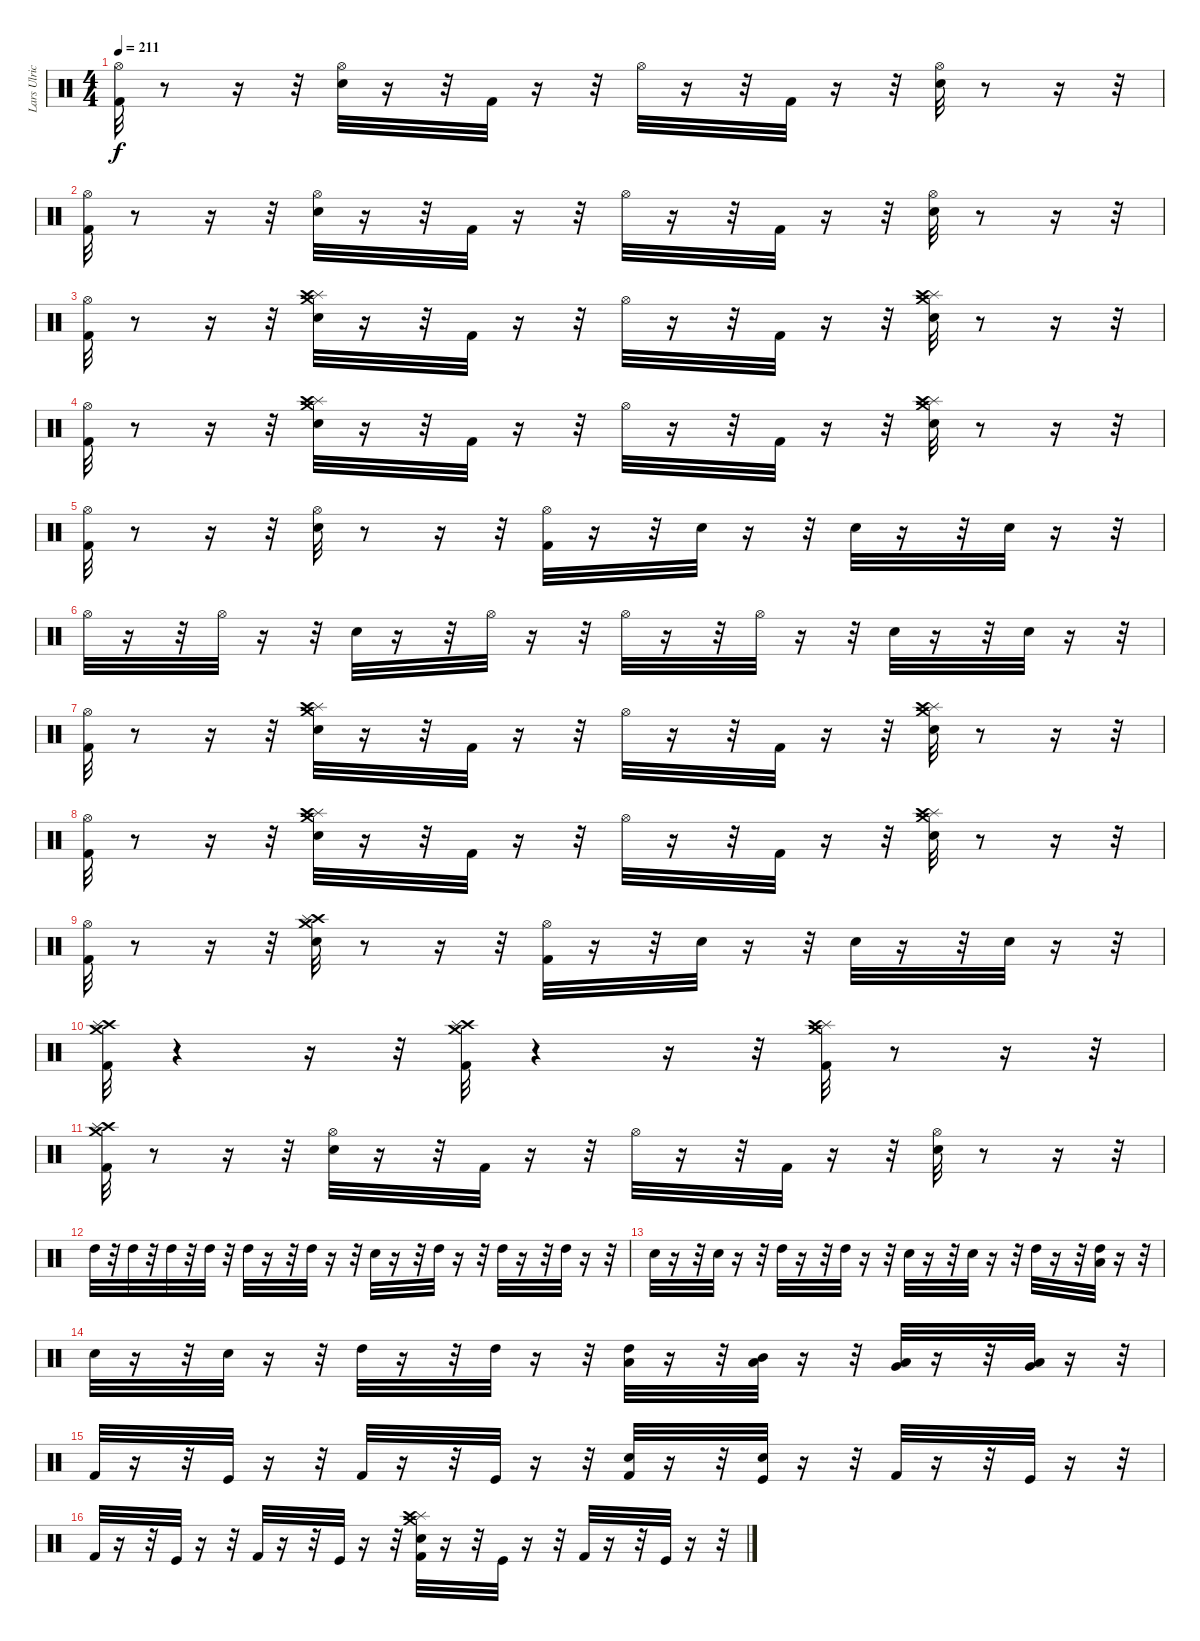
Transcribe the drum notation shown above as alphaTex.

\track ("Lars Ulrich (Drums)" "Lars Ulric") {instrument percussion}
\staff {score}
\articulation defaults
\ts (4 4)
\tempo 211
\clef neutral
\ks c
("Kick (hit) 2" "Hi-Hat (open)").32{dy f} r.8 r.16 r.32 ("Snare (hit) 2" "Hi-Hat (open)").32 r.16 r.32 "Kick (hit) 2".32 r.16 r.32 "Hi-Hat (open)".32 r.16 r.32 "Kick (hit) 2".32 r.16 r.32 ("Snare (hit) 2" "Hi-Hat (open)").32 r.8 r.16 r.32 |
("Kick (hit) 2" "Hi-Hat (open)").32 r.8 r.16 r.32 ("Snare (hit) 2" "Hi-Hat (open)").32 r.16 r.32 "Kick (hit) 2".32 r.16 r.32 "Hi-Hat (open)".32 r.16 r.32 "Kick (hit) 2".32 r.16 r.32 ("Snare (hit) 2" "Hi-Hat (open)").32 r.8 r.16 r.32 |
("Kick (hit) 2" "Hi-Hat (open)").32 r.8 r.16 r.32 ("Crash medium (hit)" "Splash (hit)" "Crash high (hit)" "Snare (hit) 2").32 r.16 r.32 "Kick (hit) 2".32 r.16 r.32 "Hi-Hat (open)".32 r.16 r.32 "Kick (hit) 2".32 r.16 r.32 ("Splash (hit)" "Crash medium (hit)" "Crash high (hit)" "Snare (hit) 2").32 r.8 r.16 r.32 |
("Kick (hit) 2" "Hi-Hat (open)").32 r.8 r.16 r.32 ("Crash medium (hit)" "Splash (hit)" "Crash high (hit)" "Snare (hit) 2").32 r.16 r.32 "Kick (hit) 2".32 r.16 r.32 "Hi-Hat (open)".32 r.16 r.32 "Kick (hit) 2".32 r.16 r.32 ("Splash (hit)" "Crash medium (hit)" "Crash high (hit)" "Snare (hit) 2").32 r.8 r.16 r.32 |
("Kick (hit) 2" "Hi-Hat (open)").32 r.8 r.16 r.32 ("Snare (hit) 2" "Hi-Hat (open)").32 r.8 r.16 r.32 ("Kick (hit) 2" "Hi-Hat (open)").32 r.16 r.32 "Snare (hit) 2".32 r.16 r.32 "Snare (hit) 2".32 r.16 r.32 "Snare (hit) 2".32 r.16 r.32 |
"Hi-Hat (open)".32 r.16 r.32 "Hi-Hat (open)".32 r.16 r.32 "Snare (hit) 2".32 r.16 r.32 "Hi-Hat (open)".32 r.16 r.32 "Hi-Hat (open)".32 r.16 r.32 "Hi-Hat (open)".32 r.16 r.32 "Snare (hit) 2".32 r.16 r.32 "Snare (hit) 2".32 r.16 r.32 |
("Kick (hit) 2" "Hi-Hat (open)").32 r.8 r.16 r.32 ("Crash medium (hit)" "Splash (hit)" "Crash high (hit)" "Snare (hit) 2").32 r.16 r.32 "Kick (hit) 2".32 r.16 r.32 "Hi-Hat (open)".32 r.16 r.32 "Kick (hit) 2".32 r.16 r.32 ("Splash (hit)" "Crash medium (hit)" "Crash high (hit)" "Snare (hit) 2").32 r.8 r.16 r.32 |
("Kick (hit) 2" "Hi-Hat (open)").32 r.8 r.16 r.32 ("Crash medium (hit)" "Splash (hit)" "Crash high (hit)" "Snare (hit) 2").32 r.16 r.32 "Kick (hit) 2".32 r.16 r.32 "Hi-Hat (open)".32 r.16 r.32 "Kick (hit) 2".32 r.16 r.32 ("Splash (hit)" "Crash medium (hit)" "Crash high (hit)" "Snare (hit) 2").32 r.8 r.16 r.32 |
("Kick (hit) 2" "Hi-Hat (open)").32 r.8 r.16 r.32 ("Crash high (hit)" "Crash medium (hit)" "Splash (hit)" "Snare (hit) 2").32 r.8 r.16 r.32 ("Kick (hit) 2" "Hi-Hat (open)").32 r.16 r.32 "Snare (hit) 2".32 r.16 r.32 "Snare (hit) 2".32 r.16 r.32 "Snare (hit) 2".32 r.16 r.32 |
("Kick (hit) 2" "Crash high (hit)" "Splash (hit)" "Crash medium (hit)").32 r.4 r.16 r.32 ("Kick (hit) 2" "Crash high (hit)" "Splash (hit)" "Crash medium (hit)").32 r.4 r.16 r.32 ("Kick (hit) 2" "Crash medium (hit)" "Splash (hit)" "Crash high (hit)").32 r.8 r.16 r.32 |
("Kick (hit) 2" "Crash high (hit)" "Crash medium (hit)" "Splash (hit)").32 r.8 r.16 r.32 ("Snare (hit) 2" "Hi-Hat (open)").32 r.16 r.32 "Kick (hit) 2".32 r.16 r.32 "Hi-Hat (open)".32 r.16 r.32 "Kick (hit) 2".32 r.16 r.32 ("Snare (hit) 2" "Hi-Hat (open)").32 r.8 r.16 r.32 |
"High Tom (hit)".32 r.32 "High Tom (hit)".32 r.32 "High Tom (hit)".32 r.32 "High Tom (hit)".32 r.32 "High Tom (hit)".32 r.16 r.32 "High Tom (hit)".32 r.16 r.32 "Snare (hit) 2".32 r.16 r.32 "High Tom (hit)".32 r.16 r.32 "High Tom (hit)".32 r.16 r.32 "High Tom (hit)".32 r.16 r.32 |
"Snare (hit) 2".32 r.16 r.32 "Snare (hit) 2".32 r.16 r.32 "High Tom (hit)".32 r.16 r.32 "High Tom (hit)".32 r.16 r.32 "Snare (hit) 2".32 r.16 r.32 "Snare (hit) 2".32 r.16 r.32 "High Tom (hit)".32 r.16 r.32 ("Low Tom (hit)" "High Tom (hit)").32 r.16 r.32 |
"Snare (hit) 2".32 r.16 r.32 "Snare (hit) 2".32 r.16 r.32 "High Tom (hit)".32 r.16 r.32 "High Tom (hit)".32 r.16 r.32 ("Low Tom (hit)" "High Tom (hit)").32 r.16 r.32 ("Low Tom (hit)" "Mid Tom (hit)").32 r.16 r.32 ("Low Tom (hit)" "Very Low Tom (hit)").32 r.16 r.32 ("Low Floor Tom (hit)" "Very Low Tom (hit)").32 r.16 r.32 |
"Kick (hit) 2".32 r.16 r.32 "Kick (hit)".32 r.16 r.32 "Kick (hit) 2".32 r.16 r.32 "Kick (hit)".32 r.16 r.32 ("Snare (hit) 2" "Kick (hit) 2").32 r.16 r.32 ("Snare (hit) 2" "Kick (hit)").32 r.16 r.32 "Kick (hit) 2".32 r.16 r.32 "Kick (hit)".32 r.16 r.32 |
"Kick (hit) 2".32 r.16 r.32 "Kick (hit)".32 r.16 r.32 "Kick (hit) 2".32 r.16 r.32 "Kick (hit)".32 r.16 r.32 ("Crash medium (hit)" "Splash (hit)" "Crash high (hit)" "Snare (hit) 2" "Kick (hit) 2").32 r.16 r.32 "Kick (hit)".32 r.16 r.32 "Kick (hit) 2".32 r.16 r.32 "Kick (hit)".32 r.16 r.32
